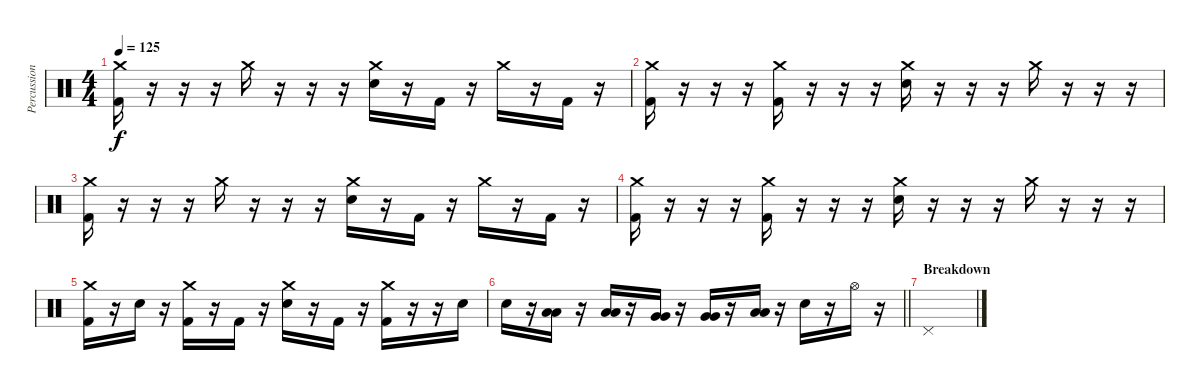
\track ("Percussion" "Percussion") {instrument percussion}
\staff {score}
\articulation defaults
\ts (4 4)
\tempo 125
\clef neutral
\ks c
("Crash medium (hit)" "Kick (hit) 2").16{dy f} r.16 r.16 r.16 "Crash medium (hit)".16 r.16 r.16 r.16 ("Crash medium (hit)" "Electric Snare (hit)").16 r.16 "Kick (hit) 2".16 r.16 "Crash medium (hit)".16 r.16 "Kick (hit) 2".16 r.16 |
("Crash medium (hit)" "Kick (hit) 2").16 r.16 r.16 r.16 ("Crash medium (hit)" "Kick (hit) 2").16 r.16 r.16 r.16 ("Crash medium (hit)" "Electric Snare (hit)").16 r.16 r.16 r.16 "Crash medium (hit)".16 r.16 r.16 r.16 |
("Crash medium (hit)" "Kick (hit) 2").16 r.16 r.16 r.16 "Crash medium (hit)".16 r.16 r.16 r.16 ("Crash medium (hit)" "Electric Snare (hit)").16 r.16 "Kick (hit) 2".16 r.16 "Crash medium (hit)".16 r.16 "Kick (hit) 2".16 r.16 |
("Crash medium (hit)" "Kick (hit) 2").16 r.16 r.16 r.16 ("Crash medium (hit)" "Kick (hit) 2").16 r.16 r.16 r.16 ("Crash medium (hit)" "Electric Snare (hit)").16 r.16 r.16 r.16 "Crash medium (hit)".16 r.16 r.16 r.16 |
("Crash medium (hit)" "Kick (hit) 2").16 r.16 "Electric Snare (hit)".16 r.16 ("Crash medium (hit)" "Kick (hit) 2").16 r.16 "Kick (hit) 2".16 r.16 ("Crash medium (hit)" "Electric Snare (hit)").16 r.16 "Kick (hit) 2".16 r.16 ("Crash medium (hit)" "Kick (hit) 2").16 r.16 r.16 "Electric Snare (hit)".16 |
\barLineRight lightlight "Electric Snare (hit)".16
r.16 ("Low Tom (hit)" "Low Tom (hit)").16 r.16 ("Low Tom (hit)" "Low Tom (hit)").16 r.16 ("Very Low Tom (hit)" "Very Low Tom (hit)").16 r.16 ("Very Low Tom (hit)" "Very Low Tom (hit)").16 r.16 ("Low Floor Tom (hit)" "Low Floor Tom (hit)").16 r.16 "Electric Snare (hit)".16 r.16 "Hi-Hat (open)".16 r.16 |
\section ("" "Breakdown")
"Pedal Hi-Hat (hit)".1
